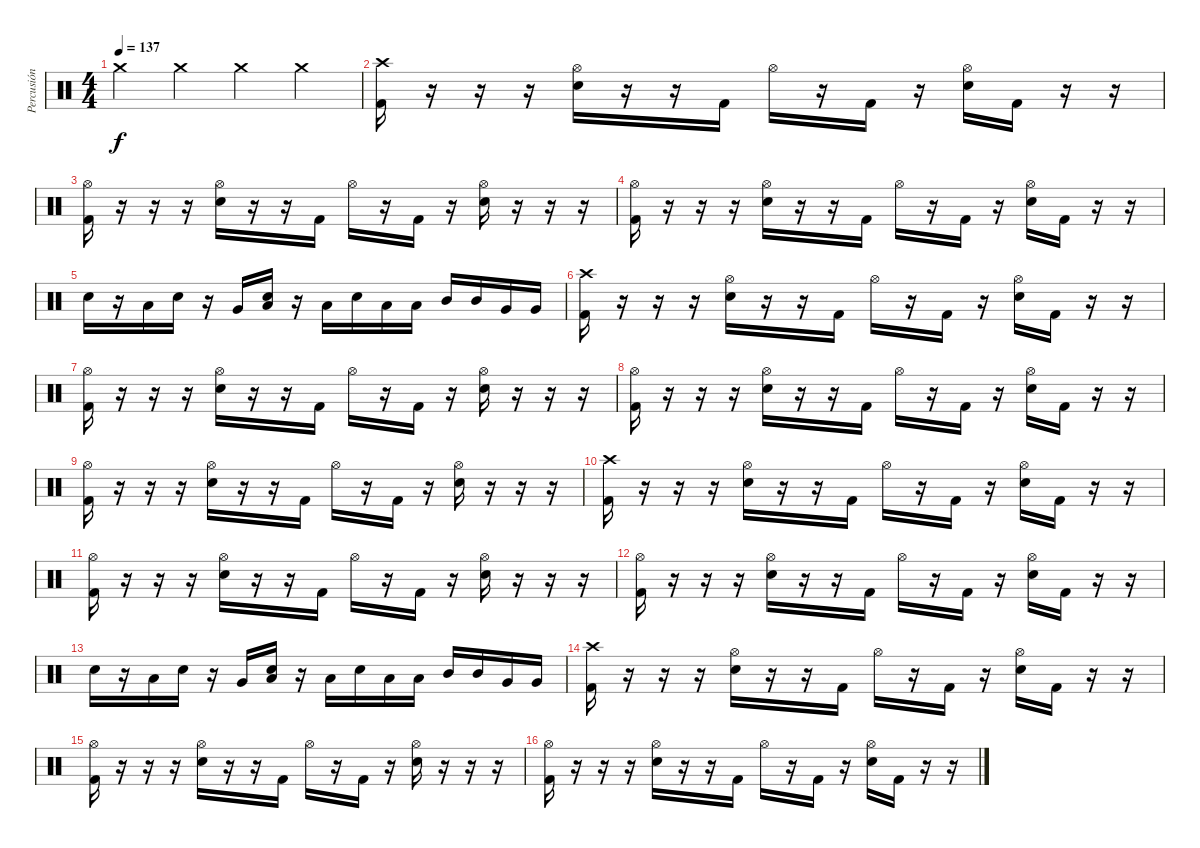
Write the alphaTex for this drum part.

\track ("Percusión" "Percusión") {instrument percussion}
\staff {score}
\articulation defaults
\ts (4 4)
\tempo 137
\clef neutral
\ks c "Crash medium (hit)".4{dy f} "Crash medium (hit)".4 "Crash medium (hit)".4 "Crash medium (hit)".4
|
("Crash high (hit)" "Kick (hit) 2").16 r.16 r.16 r.16 ("Hi-Hat (open)" "Electric Snare (hit)").16 r.16 r.16 "Kick (hit) 2".16 "Hi-Hat (open)".16 r.16 "Kick (hit) 2".16 r.16 ("Hi-Hat (open)" "Electric Snare (hit)").16 "Kick (hit) 2".16 r.16 r.16 |
("Hi-Hat (open)" "Kick (hit) 2").16 r.16 r.16 r.16 ("Hi-Hat (open)" "Electric Snare (hit)").16 r.16 r.16 "Kick (hit) 2".16 "Hi-Hat (open)".16 r.16 "Kick (hit) 2".16 r.16 ("Hi-Hat (open)" "Electric Snare (hit)").16 r.16 r.16 r.16 |
("Hi-Hat (open)" "Kick (hit) 2").16 r.16 r.16 r.16 ("Hi-Hat (open)" "Electric Snare (hit)").16 r.16 r.16 "Kick (hit) 2".16 "Hi-Hat (open)".16 r.16 "Kick (hit) 2".16 r.16 ("Hi-Hat (open)" "Electric Snare (hit)").16 "Kick (hit) 2".16 r.16 r.16 |
"Electric Snare (hit)".16 r.16 "Low Tom (hit)".16 "Electric Snare (hit)".16 r.16 "Very Low Tom (hit)".16 ("Electric Snare (hit)" "Low Tom (hit)").16 r.16 "Low Tom (hit)".16 "Electric Snare (hit)".16 "Low Tom (hit)".16 "Low Tom (hit)".16 "Mid Tom (hit)".16 "Mid Tom (hit)".16 "Very Low Tom (hit)".16 "Very Low Tom (hit)".16 |
("Crash high (hit)" "Kick (hit) 2").16 r.16 r.16 r.16 ("Hi-Hat (open)" "Electric Snare (hit)").16 r.16 r.16 "Kick (hit) 2".16 "Hi-Hat (open)".16 r.16 "Kick (hit) 2".16 r.16 ("Hi-Hat (open)" "Electric Snare (hit)").16 "Kick (hit) 2".16 r.16 r.16 |
("Hi-Hat (open)" "Kick (hit) 2").16 r.16 r.16 r.16 ("Hi-Hat (open)" "Electric Snare (hit)").16 r.16 r.16 "Kick (hit) 2".16 "Hi-Hat (open)".16 r.16 "Kick (hit) 2".16 r.16 ("Hi-Hat (open)" "Electric Snare (hit)").16 r.16 r.16 r.16 |
("Hi-Hat (open)" "Kick (hit) 2").16 r.16 r.16 r.16 ("Hi-Hat (open)" "Electric Snare (hit)").16 r.16 r.16 "Kick (hit) 2".16 "Hi-Hat (open)".16 r.16 "Kick (hit) 2".16 r.16 ("Hi-Hat (open)" "Electric Snare (hit)").16 "Kick (hit) 2".16 r.16 r.16 |
("Hi-Hat (open)" "Kick (hit) 2").16 r.16 r.16 r.16 ("Hi-Hat (open)" "Electric Snare (hit)").16 r.16 r.16 "Kick (hit) 2".16 "Hi-Hat (open)".16 r.16 "Kick (hit) 2".16 r.16 ("Hi-Hat (open)" "Electric Snare (hit)").16 r.16 r.16 r.16 |
("Crash high (hit)" "Kick (hit) 2").16 r.16 r.16 r.16 ("Hi-Hat (open)" "Electric Snare (hit)").16 r.16 r.16 "Kick (hit) 2".16 "Hi-Hat (open)".16 r.16 "Kick (hit) 2".16 r.16 ("Hi-Hat (open)" "Electric Snare (hit)").16 "Kick (hit) 2".16 r.16 r.16 |
("Hi-Hat (open)" "Kick (hit) 2").16 r.16 r.16 r.16 ("Hi-Hat (open)" "Electric Snare (hit)").16 r.16 r.16 "Kick (hit) 2".16 "Hi-Hat (open)".16 r.16 "Kick (hit) 2".16 r.16 ("Hi-Hat (open)" "Electric Snare (hit)").16 r.16 r.16 r.16 |
("Hi-Hat (open)" "Kick (hit) 2").16 r.16 r.16 r.16 ("Hi-Hat (open)" "Electric Snare (hit)").16 r.16 r.16 "Kick (hit) 2".16 "Hi-Hat (open)".16 r.16 "Kick (hit) 2".16 r.16 ("Hi-Hat (open)" "Electric Snare (hit)").16 "Kick (hit) 2".16 r.16 r.16 |
"Electric Snare (hit)".16 r.16 "Low Tom (hit)".16 "Electric Snare (hit)".16 r.16 "Very Low Tom (hit)".16 ("Electric Snare (hit)" "Low Tom (hit)").16 r.16 "Low Tom (hit)".16 "Electric Snare (hit)".16 "Low Tom (hit)".16 "Low Tom (hit)".16 "Mid Tom (hit)".16 "Mid Tom (hit)".16 "Very Low Tom (hit)".16 "Very Low Tom (hit)".16 |
("Crash high (hit)" "Kick (hit) 2").16 r.16 r.16 r.16 ("Hi-Hat (open)" "Electric Snare (hit)").16 r.16 r.16 "Kick (hit) 2".16 "Hi-Hat (open)".16 r.16 "Kick (hit) 2".16 r.16 ("Hi-Hat (open)" "Electric Snare (hit)").16 "Kick (hit) 2".16 r.16 r.16 |
("Hi-Hat (open)" "Kick (hit) 2").16 r.16 r.16 r.16 ("Hi-Hat (open)" "Electric Snare (hit)").16 r.16 r.16 "Kick (hit) 2".16 "Hi-Hat (open)".16 r.16 "Kick (hit) 2".16 r.16 ("Hi-Hat (open)" "Electric Snare (hit)").16 r.16 r.16 r.16 |
("Hi-Hat (open)" "Kick (hit) 2").16 r.16 r.16 r.16 ("Hi-Hat (open)" "Electric Snare (hit)").16 r.16 r.16 "Kick (hit) 2".16 "Hi-Hat (open)".16 r.16 "Kick (hit) 2".16 r.16 ("Hi-Hat (open)" "Electric Snare (hit)").16 "Kick (hit) 2".16 r.16 r.16
